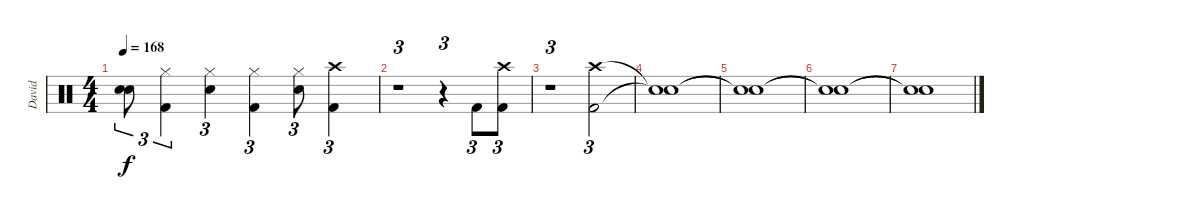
\track ("David" "David") {instrument percussion}
\staff {score}
\articulation defaults
\ts (4 4)
\tempo 168
\clef neutral
\ks c
("Snare (hit)"{t} "Snare (hit)"{t}).8{tu (3 2) dy f} ("Hi-Hat (closed)" "Kick (hit) 2").4{tu (3 2)} ("Hi-Hat (closed)" "Snare (hit) 2").4{tu (3 2)} ("Hi-Hat (closed)" "Kick (hit) 2").4{tu (3 2)} ("Hi-Hat (closed)" "Snare (hit) 2").8{tu (3 2)} ("Crash high (hit)" "Kick (hit) 2").4{tu (3 2)} |
r.1{tu (3 2)} r.4{tu (3 2)} "Kick (hit) 2".8{tu (3 2)} ("Crash high (hit)" "Kick (hit) 2").8{tu (3 2)} |
r.1{tu (3 2)} ("Crash high (hit)" "Kick (hit) 2").2{tu (3 2)} |
("Snare (hit)"{t} "Snare (hit)"{t}).1 |
("Snare (hit)"{t} "Snare (hit)"{t}).1 |
("Snare (hit)"{t} "Snare (hit)"{t}).1 |
("Snare (hit)"{t} "Snare (hit)"{t}).1
